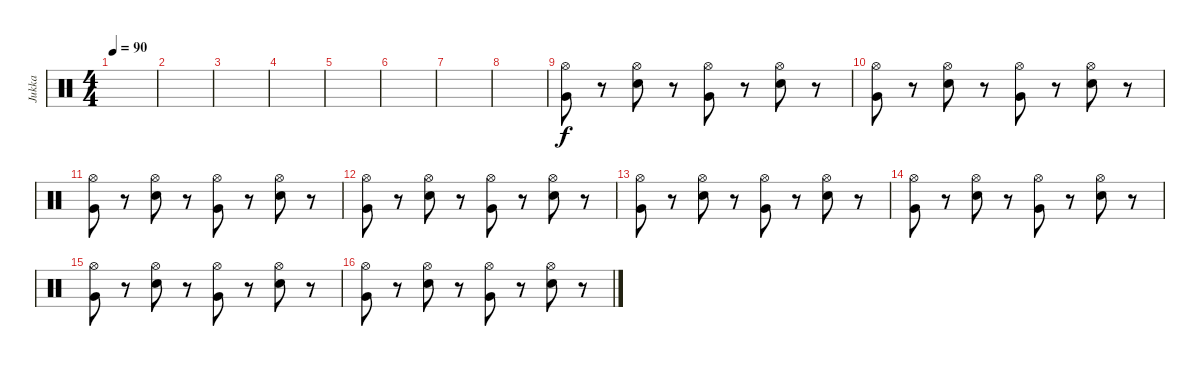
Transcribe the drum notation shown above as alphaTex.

\track ("Jukka" "Jukka") {instrument percussion}
\staff {score}
\articulation defaults
\ts (4 4)
\tempo 90
\clef neutral
\ks c
|
|
|
|
|
|
|
|
("Hi-Hat (open)" "Very Low Tom (hit)").8 r.8 ("Snare (hit) 2" "Hi-Hat (open)").8 r.8 ("Very Low Tom (hit)" "Hi-Hat (open)").8 r.8 ("Snare (hit) 2" "Hi-Hat (open)").8 r.8 |
("Hi-Hat (open)" "Very Low Tom (hit)").8 r.8 ("Snare (hit) 2" "Hi-Hat (open)").8 r.8 ("Very Low Tom (hit)" "Hi-Hat (open)").8 r.8 ("Snare (hit) 2" "Hi-Hat (open)").8 r.8 |
("Hi-Hat (open)" "Very Low Tom (hit)").8 r.8 ("Snare (hit) 2" "Hi-Hat (open)").8 r.8 ("Very Low Tom (hit)" "Hi-Hat (open)").8 r.8 ("Snare (hit) 2" "Hi-Hat (open)").8 r.8 |
("Hi-Hat (open)" "Very Low Tom (hit)").8 r.8 ("Snare (hit) 2" "Hi-Hat (open)").8 r.8 ("Very Low Tom (hit)" "Hi-Hat (open)").8 r.8 ("Snare (hit) 2" "Hi-Hat (open)").8 r.8 |
("Hi-Hat (open)" "Very Low Tom (hit)").8 r.8 ("Snare (hit) 2" "Hi-Hat (open)").8 r.8 ("Very Low Tom (hit)" "Hi-Hat (open)").8 r.8 ("Snare (hit) 2" "Hi-Hat (open)").8 r.8 |
("Hi-Hat (open)" "Very Low Tom (hit)").8 r.8 ("Snare (hit) 2" "Hi-Hat (open)").8 r.8 ("Very Low Tom (hit)" "Hi-Hat (open)").8 r.8 ("Snare (hit) 2" "Hi-Hat (open)").8 r.8 |
("Hi-Hat (open)" "Very Low Tom (hit)").8 r.8 ("Snare (hit) 2" "Hi-Hat (open)").8 r.8 ("Very Low Tom (hit)" "Hi-Hat (open)").8 r.8 ("Snare (hit) 2" "Hi-Hat (open)").8 r.8 |
("Hi-Hat (open)" "Very Low Tom (hit)").8 r.8 ("Snare (hit) 2" "Hi-Hat (open)").8 r.8 ("Very Low Tom (hit)" "Hi-Hat (open)").8 r.8 ("Snare (hit) 2" "Hi-Hat (open)").8 r.8
